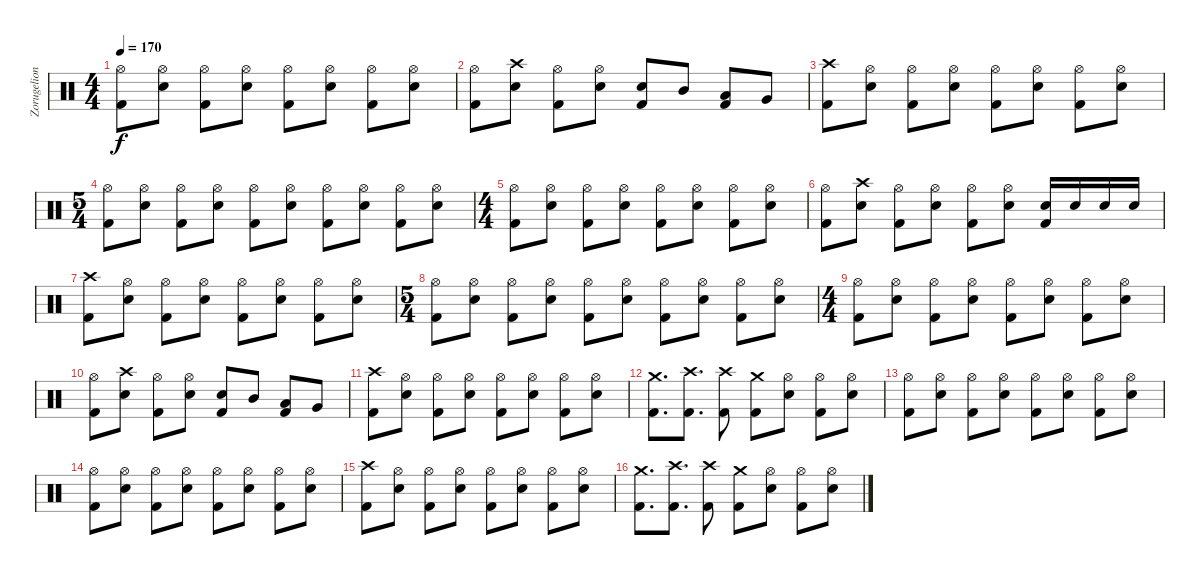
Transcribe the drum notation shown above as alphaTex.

\track ("Zorugelion" "Zorugelion") {instrument percussion}
\staff {score}
\articulation defaults
\ts (4 4)
\tempo 170
\clef neutral
\ks c
("Hi-Hat (open)" "Kick (hit) 2").8{dy f} ("Hi-Hat (open)" "Electric Snare (hit)").8 ("Hi-Hat (open)" "Kick (hit) 2").8 ("Hi-Hat (open)" "Electric Snare (hit)").8 ("Hi-Hat (open)" "Kick (hit) 2").8 ("Hi-Hat (open)" "Electric Snare (hit)").8 ("Hi-Hat (open)" "Kick (hit) 2").8 ("Hi-Hat (open)" "Electric Snare (hit)").8 |
("Hi-Hat (open)" "Kick (hit) 2").8 ("Crash high (hit)" "Electric Snare (hit)").8 ("Hi-Hat (open)" "Kick (hit) 2").8 ("Hi-Hat (open)" "Electric Snare (hit)").8 ("Electric Snare (hit)" "Kick (hit) 2").8 "Mid Tom (hit)".8 ("Low Tom (hit)" "Kick (hit) 2").8 "Very Low Tom (hit)".8 |
("Crash high (hit)" "Kick (hit) 2").8 ("Hi-Hat (open)" "Electric Snare (hit)").8 ("Hi-Hat (open)" "Kick (hit) 2").8 ("Hi-Hat (open)" "Electric Snare (hit)").8 ("Hi-Hat (open)" "Kick (hit) 2").8 ("Hi-Hat (open)" "Electric Snare (hit)").8 ("Hi-Hat (open)" "Kick (hit) 2").8 ("Hi-Hat (open)" "Electric Snare (hit)").8 |
\ts (5 4)
("Hi-Hat (open)" "Kick (hit) 2").8 ("Hi-Hat (open)" "Electric Snare (hit)").8 ("Hi-Hat (open)" "Kick (hit) 2").8 ("Hi-Hat (open)" "Electric Snare (hit)").8 ("Hi-Hat (open)" "Kick (hit) 2").8 ("Hi-Hat (open)" "Electric Snare (hit)").8 ("Hi-Hat (open)" "Kick (hit) 2").8 ("Hi-Hat (open)" "Electric Snare (hit)").8 ("Hi-Hat (open)" "Kick (hit) 2").8 ("Hi-Hat (open)" "Electric Snare (hit)").8 |
\ts (4 4)
("Hi-Hat (open)" "Kick (hit) 2").8 ("Hi-Hat (open)" "Electric Snare (hit)").8 ("Hi-Hat (open)" "Kick (hit) 2").8 ("Hi-Hat (open)" "Electric Snare (hit)").8 ("Hi-Hat (open)" "Kick (hit) 2").8 ("Hi-Hat (open)" "Electric Snare (hit)").8 ("Hi-Hat (open)" "Kick (hit) 2").8 ("Hi-Hat (open)" "Electric Snare (hit)").8 |
("Hi-Hat (open)" "Kick (hit) 2").8 ("Crash high (hit)" "Electric Snare (hit)").8 ("Hi-Hat (open)" "Kick (hit) 2").8 ("Hi-Hat (open)" "Electric Snare (hit)").8 ("Hi-Hat (open)" "Kick (hit) 2").8 ("Hi-Hat (open)" "Electric Snare (hit)").8 ("Electric Snare (hit)" "Kick (hit) 2").16 "Electric Snare (hit)".16 "Electric Snare (hit)".16 "Electric Snare (hit)".16 |
("Crash high (hit)" "Kick (hit) 2").8 ("Hi-Hat (open)" "Electric Snare (hit)").8 ("Hi-Hat (open)" "Kick (hit) 2").8 ("Hi-Hat (open)" "Electric Snare (hit)").8 ("Hi-Hat (open)" "Kick (hit) 2").8 ("Hi-Hat (open)" "Electric Snare (hit)").8 ("Hi-Hat (open)" "Kick (hit) 2").8 ("Hi-Hat (open)" "Electric Snare (hit)").8 |
\ts (5 4)
("Hi-Hat (open)" "Kick (hit) 2").8 ("Hi-Hat (open)" "Electric Snare (hit)").8 ("Hi-Hat (open)" "Kick (hit) 2").8 ("Hi-Hat (open)" "Electric Snare (hit)").8 ("Hi-Hat (open)" "Kick (hit) 2").8 ("Hi-Hat (open)" "Electric Snare (hit)").8 ("Hi-Hat (open)" "Kick (hit) 2").8 ("Hi-Hat (open)" "Electric Snare (hit)").8 ("Hi-Hat (open)" "Kick (hit) 2").8 ("Hi-Hat (open)" "Electric Snare (hit)").8 |
\ts (4 4)
("Hi-Hat (open)" "Kick (hit) 2").8 ("Hi-Hat (open)" "Electric Snare (hit)").8 ("Hi-Hat (open)" "Kick (hit) 2").8 ("Hi-Hat (open)" "Electric Snare (hit)").8 ("Hi-Hat (open)" "Kick (hit) 2").8 ("Hi-Hat (open)" "Electric Snare (hit)").8 ("Hi-Hat (open)" "Kick (hit) 2").8 ("Hi-Hat (open)" "Electric Snare (hit)").8 |
("Hi-Hat (open)" "Kick (hit) 2").8 ("Crash high (hit)" "Electric Snare (hit)").8 ("Hi-Hat (open)" "Kick (hit) 2").8 ("Hi-Hat (open)" "Electric Snare (hit)").8 ("Electric Snare (hit)" "Kick (hit) 2").8 "Mid Tom (hit)".8 ("Low Tom (hit)" "Kick (hit) 2").8 "Very Low Tom (hit)".8 |
("Crash high (hit)" "Kick (hit) 2").8 ("Hi-Hat (open)" "Electric Snare (hit)").8 ("Hi-Hat (open)" "Kick (hit) 2").8 ("Hi-Hat (open)" "Electric Snare (hit)").8 ("Hi-Hat (open)" "Kick (hit) 2").8 ("Hi-Hat (open)" "Electric Snare (hit)").8 ("Hi-Hat (open)" "Kick (hit) 2").8 ("Hi-Hat (open)" "Electric Snare (hit)").8 |
("Crash medium (hit)" "Kick (hit) 2").8{d} ("Crash high (hit)" "Kick (hit) 2").8{d} ("Crash high (hit)" "Kick (hit) 2").8 ("Crash medium (hit)" "Kick (hit) 2").8 ("Hi-Hat (open)" "Electric Snare (hit)").8 ("Hi-Hat (open)" "Kick (hit) 2").8 ("Hi-Hat (open)" "Electric Snare (hit)").8 |
("Hi-Hat (open)" "Kick (hit) 2").8 ("Hi-Hat (open)" "Electric Snare (hit)").8 ("Hi-Hat (open)" "Kick (hit) 2").8 ("Hi-Hat (open)" "Electric Snare (hit)").8 ("Hi-Hat (open)" "Kick (hit) 2").8 ("Hi-Hat (open)" "Electric Snare (hit)").8 ("Hi-Hat (open)" "Kick (hit) 2").8 ("Hi-Hat (open)" "Electric Snare (hit)").8 |
("Hi-Hat (open)" "Kick (hit) 2").8 ("Hi-Hat (open)" "Electric Snare (hit)").8 ("Hi-Hat (open)" "Kick (hit) 2").8 ("Hi-Hat (open)" "Electric Snare (hit)").8 ("Hi-Hat (open)" "Kick (hit) 2").8 ("Hi-Hat (open)" "Electric Snare (hit)").8 ("Hi-Hat (open)" "Kick (hit) 2").8 ("Hi-Hat (open)" "Electric Snare (hit)").8 |
("Crash high (hit)" "Kick (hit) 2").8 ("Hi-Hat (open)" "Electric Snare (hit)").8 ("Hi-Hat (open)" "Kick (hit) 2").8 ("Hi-Hat (open)" "Electric Snare (hit)").8 ("Hi-Hat (open)" "Kick (hit) 2").8 ("Hi-Hat (open)" "Electric Snare (hit)").8 ("Hi-Hat (open)" "Kick (hit) 2").8 ("Hi-Hat (open)" "Electric Snare (hit)").8 |
("Crash medium (hit)" "Kick (hit) 2").8{d} ("Crash high (hit)" "Kick (hit) 2").8{d} ("Crash high (hit)" "Kick (hit) 2").8 ("Crash medium (hit)" "Kick (hit) 2").8 ("Hi-Hat (open)" "Electric Snare (hit)").8 ("Hi-Hat (open)" "Kick (hit) 2").8 ("Hi-Hat (open)" "Electric Snare (hit)").8
